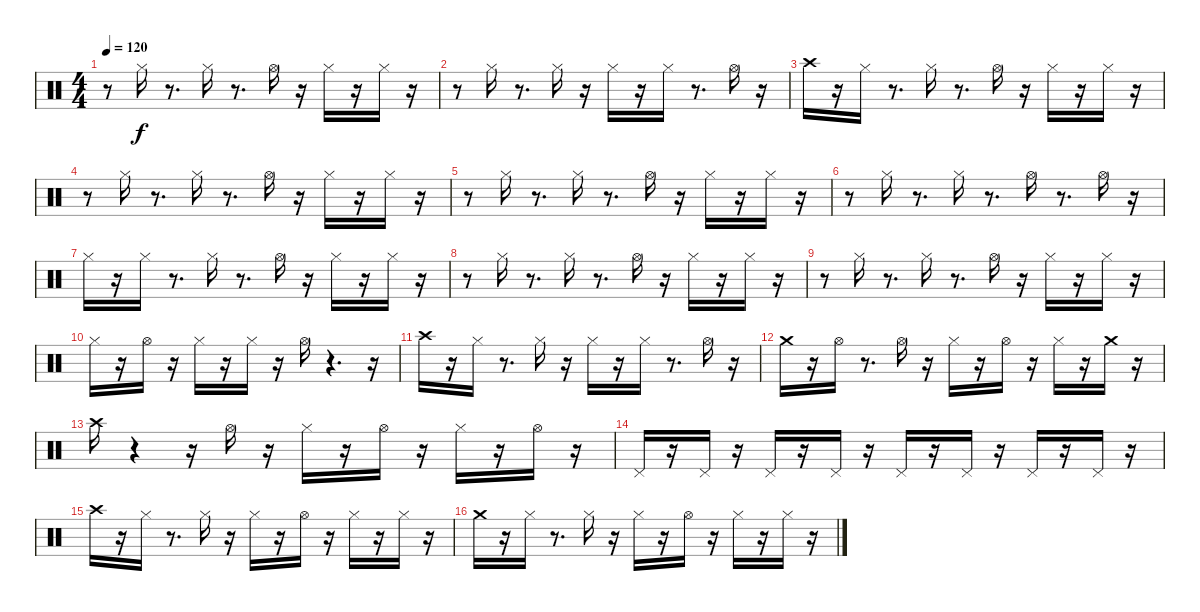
\track "" {instrument percussion}
\staff {score}
\articulation defaults
\ts (4 4)
\tempo 120
\clef neutral
\ks c
r.8{dy f} "Hi-Hat (closed)".16 r.8{d} "Hi-Hat (closed)".16 r.8{d} "Hi-Hat (open)".16 r.16 "Hi-Hat (closed)".16 r.16 "Hi-Hat (closed)".16 r.16 |
r.8 "Hi-Hat (closed)".16 r.8{d} "Hi-Hat (closed)".16 r.16 "Hi-Hat (closed)".16 r.16 "Hi-Hat (closed)".16 r.8{d} "Hi-Hat (open)".16 r.16 |
"Crash high (hit)".16 r.16 "Hi-Hat (closed)".16 r.8{d} "Hi-Hat (closed)".16 r.8{d} "Hi-Hat (open)".16 r.16 "Hi-Hat (closed)".16 r.16 "Hi-Hat (closed)".16 r.16 |
r.8 "Hi-Hat (closed)".16 r.8{d} "Hi-Hat (closed)".16 r.8{d} "Hi-Hat (open)".16 r.16 "Hi-Hat (closed)".16 r.16 "Hi-Hat (closed)".16 r.16 |
r.8 "Hi-Hat (closed)".16 r.8{d} "Hi-Hat (closed)".16 r.8{d} "Hi-Hat (open)".16 r.16 "Hi-Hat (closed)".16 r.16 "Hi-Hat (closed)".16 r.16 |
r.8 "Hi-Hat (closed)".16 r.8{d} "Hi-Hat (closed)".16 r.8{d} "Hi-Hat (open)".16 r.8{d} "Hi-Hat (open)".16 r.16 |
"Hi-Hat (closed)".16 r.16 "Hi-Hat (closed)".16 r.8{d} "Hi-Hat (closed)".16 r.8{d} "Hi-Hat (open)".16 r.16 "Hi-Hat (closed)".16 r.16 "Hi-Hat (closed)".16 r.16 |
r.8 "Hi-Hat (closed)".16 r.8{d} "Hi-Hat (closed)".16 r.8{d} "Hi-Hat (open)".16 r.16 "Hi-Hat (closed)".16 r.16 "Hi-Hat (closed)".16 r.16 |
r.8 "Hi-Hat (closed)".16 r.8{d} "Hi-Hat (closed)".16 r.8{d} "Hi-Hat (open)".16 r.16 "Hi-Hat (closed)".16 r.16 "Hi-Hat (closed)".16 r.16 |
"Hi-Hat (closed)".16 r.16 "Hi-Hat (open)".16 r.16 "Hi-Hat (closed)".16 r.16 "Hi-Hat (closed)".16 r.16 "Hi-Hat (open)".16 r.4{d} r.16 |
"Crash high (hit)".16 r.16 "Hi-Hat (closed)".16 r.8{d} "Hi-Hat (closed)".16 r.16 "Hi-Hat (closed)".16 r.16 "Hi-Hat (closed)".16 r.8{d} "Hi-Hat (open)".16 r.16 |
"Crash medium (hit)".16 r.16 "Hi-Hat (open)".16 r.8{d} "Hi-Hat (open)".16 r.16 "Hi-Hat (closed)".16 r.16 "Hi-Hat (open)".16 r.16 "Hi-Hat (closed)".16 r.16 "Crash medium (hit)".16 r.16 |
"Crash high (hit)".16 r.4 r.16 "Hi-Hat (open)".16 r.16 "Hi-Hat (closed)".16 r.16 "Hi-Hat (open)".16 r.16 "Hi-Hat (closed)".16 r.16 "Hi-Hat (open)".16 r.16 |
"Pedal Hi-Hat (hit)".16 r.16 "Pedal Hi-Hat (hit)".16 r.16 "Pedal Hi-Hat (hit)".16 r.16 "Pedal Hi-Hat (hit)".16 r.16 "Pedal Hi-Hat (hit)".16 r.16 "Pedal Hi-Hat (hit)".16 r.16 "Pedal Hi-Hat (hit)".16 r.16 "Pedal Hi-Hat (hit)".16 r.16 |
"Crash high (hit)".16 r.16 "Hi-Hat (closed)".16 r.8{d} "Hi-Hat (closed)".16 r.16 "Hi-Hat (closed)".16 r.16 "Hi-Hat (open)".16 r.16 "Hi-Hat (closed)".16 r.16 "Hi-Hat (closed)".16 r.16 |
"Crash medium (hit)".16 r.16 "Hi-Hat (closed)".16 r.8{d} "Hi-Hat (closed)".16 r.16 "Hi-Hat (closed)".16 r.16 "Hi-Hat (open)".16 r.16 "Hi-Hat (closed)".16 r.16 "Hi-Hat (closed)".16 r.16
